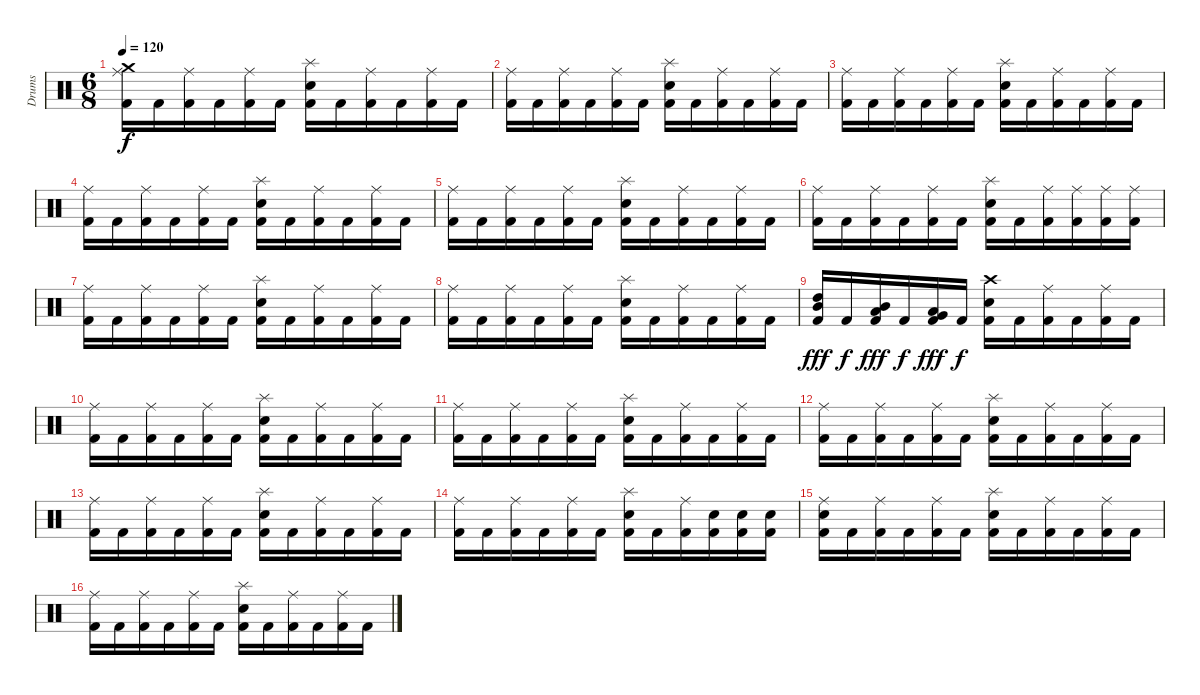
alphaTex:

\track ("Drums" "Drums") {instrument percussion}
\staff {score}
\articulation defaults
\ts (6 8)
\tempo 120
\clef neutral
\ks c
("Kick (hit) 2" "Ride (middle)" "Crash medium (hit)").16{dy f} "Kick (hit) 2".16 ("Kick (hit) 2" "Ride (middle)").16 "Kick (hit) 2".16 ("Kick (hit) 2" "Ride (middle)").16 "Kick (hit) 2".16 ("Kick (hit) 2" "Snare (hit) 2" "Splash (hit)").16 "Kick (hit) 2".16 ("Kick (hit) 2" "Ride (middle)").16 "Kick (hit) 2".16 ("Kick (hit) 2" "Ride (middle)").16 "Kick (hit) 2".16 |
("Kick (hit) 2" "Ride (middle)").16 "Kick (hit) 2".16 ("Kick (hit) 2" "Ride (middle)").16 "Kick (hit) 2".16 ("Kick (hit) 2" "Ride (middle)").16 "Kick (hit) 2".16 ("Kick (hit) 2" "Snare (hit) 2" "Splash (hit)").16 "Kick (hit) 2".16 ("Kick (hit) 2" "Ride (middle)").16 "Kick (hit) 2".16 ("Kick (hit) 2" "Ride (middle)").16 "Kick (hit) 2".16 |
("Kick (hit) 2" "Ride (middle)").16 "Kick (hit) 2".16 ("Kick (hit) 2" "Ride (middle)").16 "Kick (hit) 2".16 ("Kick (hit) 2" "Ride (middle)").16 "Kick (hit) 2".16 ("Kick (hit) 2" "Snare (hit) 2" "Splash (hit)").16 "Kick (hit) 2".16 ("Kick (hit) 2" "Ride (middle)").16 "Kick (hit) 2".16 ("Kick (hit) 2" "Ride (middle)").16 "Kick (hit) 2".16 |
("Kick (hit) 2" "Ride (middle)").16 "Kick (hit) 2".16 ("Kick (hit) 2" "Ride (middle)").16 "Kick (hit) 2".16 ("Kick (hit) 2" "Ride (middle)").16 "Kick (hit) 2".16 ("Kick (hit) 2" "Snare (hit) 2" "Splash (hit)").16 "Kick (hit) 2".16 ("Kick (hit) 2" "Ride (middle)").16 "Kick (hit) 2".16 ("Kick (hit) 2" "Ride (middle)").16 "Kick (hit) 2".16 |
("Kick (hit) 2" "Ride (middle)").16 "Kick (hit) 2".16 ("Kick (hit) 2" "Ride (middle)").16 "Kick (hit) 2".16 ("Kick (hit) 2" "Ride (middle)").16 "Kick (hit) 2".16 ("Kick (hit) 2" "Snare (hit) 2" "Splash (hit)").16 "Kick (hit) 2".16 ("Kick (hit) 2" "Ride (middle)").16 "Kick (hit) 2".16 ("Kick (hit) 2" "Ride (middle)").16 "Kick (hit) 2".16 |
("Kick (hit) 2" "Ride (middle)").16 "Kick (hit) 2".16 ("Kick (hit) 2" "Ride (middle)").16 "Kick (hit) 2".16 ("Kick (hit) 2" "Ride (middle)").16 "Kick (hit) 2".16 ("Kick (hit) 2" "Snare (hit) 2" "Splash (hit)").16 "Kick (hit) 2".16 ("Kick (hit) 2" "Ride (middle)").16 ("Kick (hit) 2" "Ride (middle)").16 ("Kick (hit) 2" "Ride (middle)").16 ("Kick (hit) 2" "Ride (middle)").16 |
("Kick (hit) 2" "Ride (middle)").16 "Kick (hit) 2".16 ("Kick (hit) 2" "Ride (middle)").16 "Kick (hit) 2".16 ("Kick (hit) 2" "Ride (middle)").16 "Kick (hit) 2".16 ("Kick (hit) 2" "Snare (hit) 2" "Splash (hit)").16 "Kick (hit) 2".16 ("Kick (hit) 2" "Ride (middle)").16 "Kick (hit) 2".16 ("Kick (hit) 2" "Ride (middle)").16 "Kick (hit) 2".16 |
("Kick (hit) 2" "Ride (middle)").16 "Kick (hit) 2".16 ("Kick (hit) 2" "Ride (middle)").16 "Kick (hit) 2".16 ("Kick (hit) 2" "Ride (middle)").16 "Kick (hit) 2".16 ("Kick (hit) 2" "Snare (hit) 2" "Splash (hit)").16 "Kick (hit) 2".16 ("Kick (hit) 2" "Ride (middle)").16 "Kick (hit) 2".16 ("Kick (hit) 2" "Ride (middle)").16 "Kick (hit) 2".16 |
("Kick (hit) 2" "High Tom (hit)" "Mid Tom (hit)").16{dy fff} "Kick (hit) 2".16{dy f} ("Kick (hit) 2" "Mid Tom (hit)" "Low Tom (hit)").16{dy fff} "Kick (hit) 2".16{dy f} ("Kick (hit) 2" "Low Tom (hit)" "Very Low Tom (hit)").16{dy fff} "Kick (hit) 2".16{dy f} ("Kick (hit) 2" "Snare (hit) 2" "Crash high (hit)").16 "Kick (hit) 2".16 ("Kick (hit) 2" "Ride (middle)").16 "Kick (hit) 2".16 ("Kick (hit) 2" "Ride (middle)").16 "Kick (hit) 2".16 |
("Kick (hit) 2" "Ride (middle)").16 "Kick (hit) 2".16 ("Kick (hit) 2" "Ride (middle)").16 "Kick (hit) 2".16 ("Kick (hit) 2" "Ride (middle)").16 "Kick (hit) 2".16 ("Kick (hit) 2" "Snare (hit) 2" "Splash (hit)").16 "Kick (hit) 2".16 ("Kick (hit) 2" "Ride (middle)").16 "Kick (hit) 2".16 ("Kick (hit) 2" "Ride (middle)").16 "Kick (hit) 2".16 |
("Kick (hit) 2" "Ride (middle)").16 "Kick (hit) 2".16 ("Kick (hit) 2" "Ride (middle)").16 "Kick (hit) 2".16 ("Kick (hit) 2" "Ride (middle)").16 "Kick (hit) 2".16 ("Kick (hit) 2" "Snare (hit) 2" "Splash (hit)").16 "Kick (hit) 2".16 ("Kick (hit) 2" "Ride (middle)").16 "Kick (hit) 2".16 ("Kick (hit) 2" "Ride (middle)").16 "Kick (hit) 2".16 |
("Kick (hit) 2" "Ride (middle)").16 "Kick (hit) 2".16 ("Kick (hit) 2" "Ride (middle)").16 "Kick (hit) 2".16 ("Kick (hit) 2" "Ride (middle)").16 "Kick (hit) 2".16 ("Kick (hit) 2" "Snare (hit) 2" "Splash (hit)").16 "Kick (hit) 2".16 ("Kick (hit) 2" "Ride (middle)").16 "Kick (hit) 2".16 ("Kick (hit) 2" "Ride (middle)").16 "Kick (hit) 2".16 |
("Kick (hit) 2" "Ride (middle)").16 "Kick (hit) 2".16 ("Kick (hit) 2" "Ride (middle)").16 "Kick (hit) 2".16 ("Kick (hit) 2" "Ride (middle)").16 "Kick (hit) 2".16 ("Kick (hit) 2" "Snare (hit) 2" "Splash (hit)").16 "Kick (hit) 2".16 ("Kick (hit) 2" "Ride (middle)").16 "Kick (hit) 2".16 ("Kick (hit) 2" "Ride (middle)").16 "Kick (hit) 2".16 |
("Kick (hit) 2" "Ride (middle)").16 "Kick (hit) 2".16 ("Kick (hit) 2" "Ride (middle)").16 "Kick (hit) 2".16 ("Kick (hit) 2" "Ride (middle)").16 "Kick (hit) 2".16 ("Kick (hit) 2" "Snare (hit) 2" "Splash (hit)").16 "Kick (hit) 2".16 ("Kick (hit) 2" "Ride (middle)").16 ("Kick (hit) 2" "Snare (hit) 2").16 ("Kick (hit) 2" "Snare (hit) 2").16 ("Kick (hit) 2" "Snare (hit) 2").16 |
("Kick (hit) 2" "Snare (hit) 2" "Ride (middle)").16 "Kick (hit) 2".16 ("Kick (hit) 2" "Ride (middle)").16 "Kick (hit) 2".16 ("Kick (hit) 2" "Ride (middle)").16 "Kick (hit) 2".16 ("Kick (hit) 2" "Snare (hit) 2" "Splash (hit)").16 "Kick (hit) 2".16 ("Kick (hit) 2" "Ride (middle)").16 "Kick (hit) 2".16 ("Kick (hit) 2" "Ride (middle)").16 "Kick (hit) 2".16 |
("Kick (hit) 2" "Ride (middle)").16 "Kick (hit) 2".16 ("Kick (hit) 2" "Ride (middle)").16 "Kick (hit) 2".16 ("Kick (hit) 2" "Ride (middle)").16 "Kick (hit) 2".16 ("Kick (hit) 2" "Snare (hit) 2" "Splash (hit)").16 "Kick (hit) 2".16 ("Kick (hit) 2" "Ride (middle)").16 "Kick (hit) 2".16 ("Kick (hit) 2" "Ride (middle)").16 "Kick (hit) 2".16
